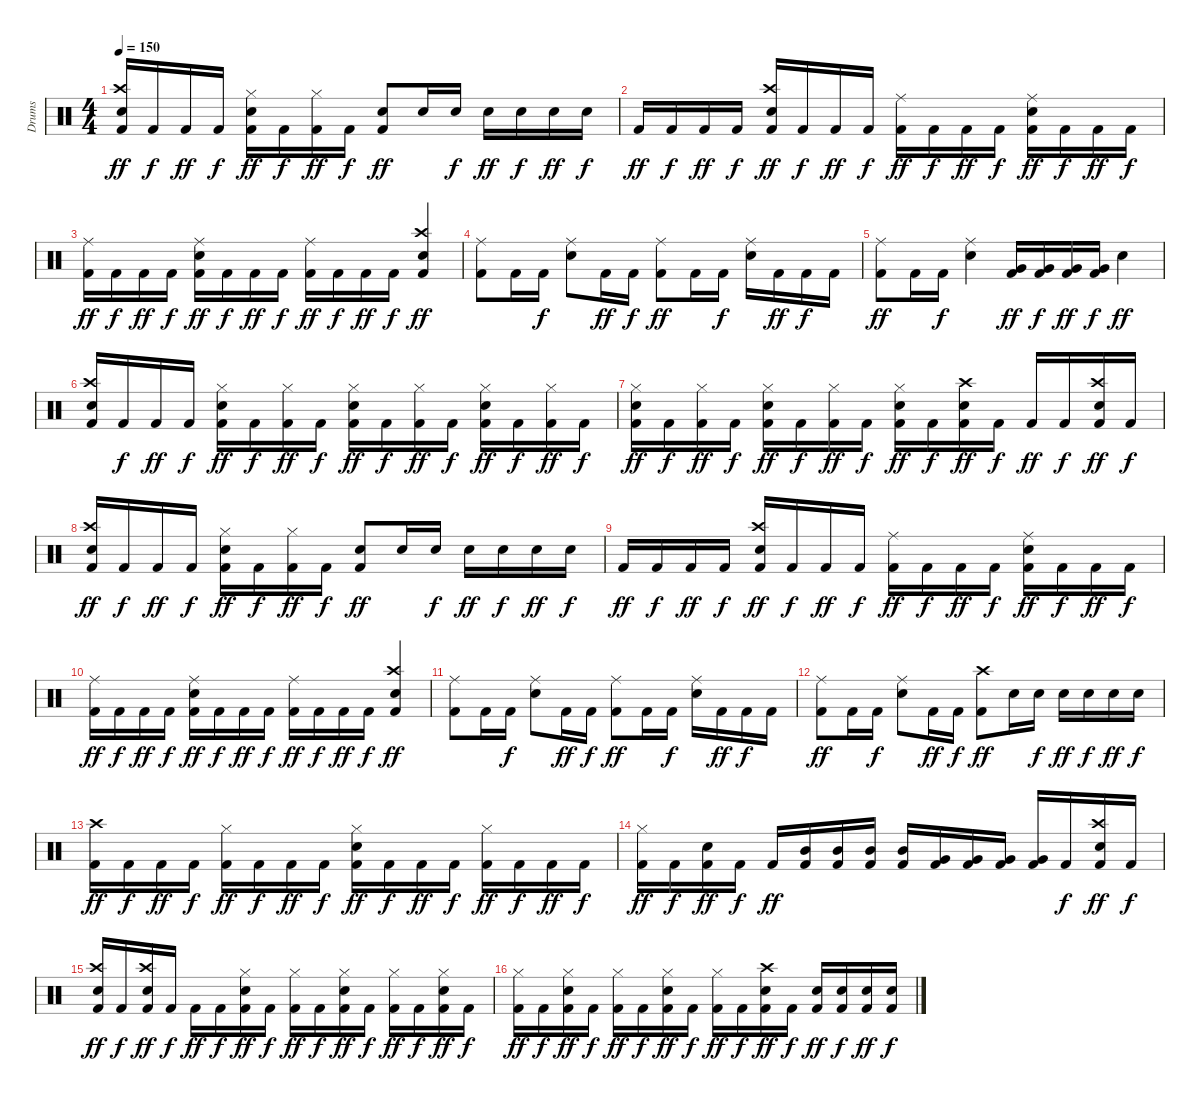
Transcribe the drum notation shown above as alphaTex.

\track ("Drums" "Drums") {instrument percussion}
\staff {score}
\articulation defaults
\ts (4 4)
\tempo 150
\clef neutral
\ks c
("Kick (hit) 2" "Crash high (hit)" "Snare (hit) 2").16{dy ff} "Kick (hit) 2".16{dy f} "Kick (hit) 2".16{dy ff} "Kick (hit) 2".16{dy f} ("Kick (hit) 2" "Hi-Hat (closed)" "Snare (hit) 2").16{dy ff} "Kick (hit) 2".16{dy f} ("Hi-Hat (closed)" "Kick (hit) 2").16{dy ff} "Kick (hit) 2".16{dy f} ("Kick (hit) 2" "Snare (hit) 2").8{dy ff} "Snare (hit) 2".16 "Snare (hit) 2".16{dy f} "Snare (hit) 2".16{dy ff} "Snare (hit) 2".16{dy f} "Snare (hit) 2".16{dy ff} "Snare (hit) 2".16{dy f} |
"Kick (hit) 2".16{dy ff} "Kick (hit) 2".16{dy f} "Kick (hit) 2".16{dy ff} "Kick (hit) 2".16{dy f} ("Kick (hit) 2" "Crash high (hit)" "Snare (hit) 2").16{dy ff} "Kick (hit) 2".16{dy f} "Kick (hit) 2".16{dy ff} "Kick (hit) 2".16{dy f} ("Ride (middle)" "Kick (hit) 2").16{dy ff} "Kick (hit) 2".16{dy f} "Kick (hit) 2".16{dy ff} "Kick (hit) 2".16{dy f} ("Kick (hit) 2" "Snare (hit) 2" "Ride (middle)").16{dy ff} "Kick (hit) 2".16{dy f} "Kick (hit) 2".16{dy ff} "Kick (hit) 2".16{dy f} |
("Ride (middle)" "Kick (hit) 2").16{dy ff} "Kick (hit) 2".16{dy f} "Kick (hit) 2".16{dy ff} "Kick (hit) 2".16{dy f} ("Kick (hit) 2" "Snare (hit) 2" "Ride (middle)").16{dy ff} "Kick (hit) 2".16{dy f} "Kick (hit) 2".16{dy ff} "Kick (hit) 2".16{dy f} ("Ride (middle)" "Kick (hit) 2").16{dy ff} "Kick (hit) 2".16{dy f} "Kick (hit) 2".16{dy ff} "Kick (hit) 2".16{dy f} ("Kick (hit) 2" "Crash high (hit)" "Snare (hit) 2").4{dy ff} |
("Ride (middle)" "Kick (hit) 2").8 "Kick (hit) 2".16 "Kick (hit) 2".16{dy f} ("Snare (hit) 2" "Ride (middle)").8 "Kick (hit) 2".16{dy ff} "Kick (hit) 2".16{dy f} ("Ride (middle)" "Kick (hit) 2").8{dy ff} "Kick (hit) 2".16 "Kick (hit) 2".16{dy f} ("Snare (hit) 2" "Ride (middle)").16 "Kick (hit) 2".16{dy ff} "Kick (hit) 2".16{dy f} "Kick (hit) 2".16 |
("Ride (middle)" "Kick (hit) 2").8{dy ff} "Kick (hit) 2".16 "Kick (hit) 2".16{dy f} ("Snare (hit) 2" "Ride (middle)").4 ("Very Low Tom (hit)" "Kick (hit) 2").16{dy ff} ("Kick (hit) 2" "Very Low Tom (hit)").16{dy f} ("Very Low Tom (hit)" "Kick (hit) 2").16{dy ff} ("Kick (hit) 2" "Very Low Tom (hit)").16{dy f} "Snare (hit) 2".4{dy ff} |
("Kick (hit) 2" "Crash high (hit)" "Snare (hit) 2").16 "Kick (hit) 2".16{dy f} "Kick (hit) 2".16{dy ff} "Kick (hit) 2".16{dy f} ("Kick (hit) 2" "Hi-Hat (closed)" "Snare (hit) 2").16{dy ff} "Kick (hit) 2".16{dy f} ("Hi-Hat (closed)" "Kick (hit) 2").16{dy ff} "Kick (hit) 2".16{dy f} ("Kick (hit) 2" "Hi-Hat (closed)" "Snare (hit) 2").16{dy ff} "Kick (hit) 2".16{dy f} ("Hi-Hat (closed)" "Kick (hit) 2").16{dy ff} "Kick (hit) 2".16{dy f} ("Kick (hit) 2" "Hi-Hat (closed)" "Snare (hit) 2").16{dy ff} "Kick (hit) 2".16{dy f} ("Hi-Hat (closed)" "Kick (hit) 2").16{dy ff} "Kick (hit) 2".16{dy f} |
("Kick (hit) 2" "Hi-Hat (closed)" "Snare (hit) 2").16{dy ff} "Kick (hit) 2".16{dy f} ("Hi-Hat (closed)" "Kick (hit) 2").16{dy ff} "Kick (hit) 2".16{dy f} ("Kick (hit) 2" "Hi-Hat (closed)" "Snare (hit) 2").16{dy ff} "Kick (hit) 2".16{dy f} ("Hi-Hat (closed)" "Kick (hit) 2").16{dy ff} "Kick (hit) 2".16{dy f} ("Kick (hit) 2" "Hi-Hat (closed)" "Snare (hit) 2").16{dy ff} "Kick (hit) 2".16{dy f} ("Kick (hit) 2" "Snare (hit) 2" "Crash high (hit)").16{dy ff} "Kick (hit) 2".16{dy f} "Kick (hit) 2".16{dy ff} "Kick (hit) 2".16{dy f} ("Kick (hit) 2" "Snare (hit) 2" "Crash high (hit)").16{dy ff} "Kick (hit) 2".16{dy f} |
("Kick (hit) 2" "Crash high (hit)" "Snare (hit) 2").16{dy ff} "Kick (hit) 2".16{dy f} "Kick (hit) 2".16{dy ff} "Kick (hit) 2".16{dy f} ("Kick (hit) 2" "Hi-Hat (closed)" "Snare (hit) 2").16{dy ff} "Kick (hit) 2".16{dy f} ("Hi-Hat (closed)" "Kick (hit) 2").16{dy ff} "Kick (hit) 2".16{dy f} ("Kick (hit) 2" "Snare (hit) 2").8{dy ff} "Snare (hit) 2".16 "Snare (hit) 2".16{dy f} "Snare (hit) 2".16{dy ff} "Snare (hit) 2".16{dy f} "Snare (hit) 2".16{dy ff} "Snare (hit) 2".16{dy f} |
"Kick (hit) 2".16{dy ff} "Kick (hit) 2".16{dy f} "Kick (hit) 2".16{dy ff} "Kick (hit) 2".16{dy f} ("Kick (hit) 2" "Crash high (hit)" "Snare (hit) 2").16{dy ff} "Kick (hit) 2".16{dy f} "Kick (hit) 2".16{dy ff} "Kick (hit) 2".16{dy f} ("Ride (middle)" "Kick (hit) 2").16{dy ff} "Kick (hit) 2".16{dy f} "Kick (hit) 2".16{dy ff} "Kick (hit) 2".16{dy f} ("Kick (hit) 2" "Snare (hit) 2" "Ride (middle)").16{dy ff} "Kick (hit) 2".16{dy f} "Kick (hit) 2".16{dy ff} "Kick (hit) 2".16{dy f} |
("Ride (middle)" "Kick (hit) 2").16{dy ff} "Kick (hit) 2".16{dy f} "Kick (hit) 2".16{dy ff} "Kick (hit) 2".16{dy f} ("Kick (hit) 2" "Snare (hit) 2" "Ride (middle)").16{dy ff} "Kick (hit) 2".16{dy f} "Kick (hit) 2".16{dy ff} "Kick (hit) 2".16{dy f} ("Ride (middle)" "Kick (hit) 2").16{dy ff} "Kick (hit) 2".16{dy f} "Kick (hit) 2".16{dy ff} "Kick (hit) 2".16{dy f} ("Kick (hit) 2" "Crash high (hit)" "Snare (hit) 2").4{dy ff} |
("Ride (middle)" "Kick (hit) 2").8 "Kick (hit) 2".16 "Kick (hit) 2".16{dy f} ("Snare (hit) 2" "Ride (middle)").8 "Kick (hit) 2".16{dy ff} "Kick (hit) 2".16{dy f} ("Ride (middle)" "Kick (hit) 2").8{dy ff} "Kick (hit) 2".16 "Kick (hit) 2".16{dy f} ("Snare (hit) 2" "Ride (middle)").16 "Kick (hit) 2".16{dy ff} "Kick (hit) 2".16{dy f} "Kick (hit) 2".16 |
("Ride (middle)" "Kick (hit) 2").8{dy ff} "Kick (hit) 2".16 "Kick (hit) 2".16{dy f} ("Snare (hit) 2" "Ride (middle)").8 "Kick (hit) 2".16{dy ff} "Kick (hit) 2".16{dy f} ("Crash high (hit)" "Kick (hit) 2").8{dy ff} "Snare (hit) 2".16 "Snare (hit) 2".16{dy f} "Snare (hit) 2".16{dy ff} "Snare (hit) 2".16{dy f} "Snare (hit) 2".16{dy ff} "Snare (hit) 2".16{dy f} |
("Crash high (hit)" "Kick (hit) 2").16{dy ff} "Kick (hit) 2".16{dy f} "Kick (hit) 2".16{dy ff} "Kick (hit) 2".16{dy f} ("Hi-Hat (closed)" "Kick (hit) 2").16{dy ff} "Kick (hit) 2".16{dy f} "Kick (hit) 2".16{dy ff} "Kick (hit) 2".16{dy f} ("Kick (hit) 2" "Snare (hit) 2" "Hi-Hat (closed)").16{dy ff} "Kick (hit) 2".16{dy f} "Kick (hit) 2".16{dy ff} "Kick (hit) 2".16{dy f} ("Hi-Hat (closed)" "Kick (hit) 2").16{dy ff} "Kick (hit) 2".16{dy f} "Kick (hit) 2".16{dy ff} "Kick (hit) 2".16{dy f} |
("Hi-Hat (closed)" "Kick (hit) 2").16{dy ff} "Kick (hit) 2".16{dy f} ("Snare (hit) 2" "Kick (hit) 2").16{dy ff} "Kick (hit) 2".16{dy f} "Kick (hit) 2".16{dy ff} ("Mid Tom (hit)" "Kick (hit) 2").16 ("Mid Tom (hit)" "Kick (hit) 2").16 ("Mid Tom (hit)" "Kick (hit) 2").16 ("Mid Tom (hit)" "Kick (hit) 2").16 ("Very Low Tom (hit)" "Kick (hit) 2").16 ("Very Low Tom (hit)" "Kick (hit) 2").16 ("Very Low Tom (hit)" "Kick (hit) 2").16 ("Very Low Tom (hit)" "Kick (hit) 2").16 "Kick (hit) 2".16{dy f} ("Kick (hit) 2" "Crash high (hit)" "Snare (hit) 2").16{dy ff} "Kick (hit) 2".16{dy f} |
("Kick (hit) 2" "Snare (hit) 2" "Crash high (hit)").16{dy ff} "Kick (hit) 2".16{dy f} ("Kick (hit) 2" "Snare (hit) 2" "Crash high (hit)").16{dy ff} "Kick (hit) 2".16{dy f} "Kick (hit) 2".16{dy ff} "Kick (hit) 2".16{dy f} ("Kick (hit) 2" "Hi-Hat (closed)" "Snare (hit) 2").16{dy ff} "Kick (hit) 2".16{dy f} ("Hi-Hat (closed)" "Kick (hit) 2").16{dy ff} "Kick (hit) 2".16{dy f} ("Kick (hit) 2" "Hi-Hat (closed)" "Snare (hit) 2").16{dy ff} "Kick (hit) 2".16{dy f} ("Hi-Hat (closed)" "Kick (hit) 2").16{dy ff} "Kick (hit) 2".16{dy f} ("Kick (hit) 2" "Hi-Hat (closed)" "Snare (hit) 2").16{dy ff} "Kick (hit) 2".16{dy f} |
("Hi-Hat (closed)" "Kick (hit) 2").16{dy ff} "Kick (hit) 2".16{dy f} ("Kick (hit) 2" "Hi-Hat (closed)" "Snare (hit) 2").16{dy ff} "Kick (hit) 2".16{dy f} ("Hi-Hat (closed)" "Kick (hit) 2").16{dy ff} "Kick (hit) 2".16{dy f} ("Kick (hit) 2" "Hi-Hat (closed)" "Snare (hit) 2").16{dy ff} "Kick (hit) 2".16{dy f} ("Hi-Hat (closed)" "Kick (hit) 2").16{dy ff} "Kick (hit) 2".16{dy f} ("Snare (hit) 2" "Crash high (hit)" "Kick (hit) 2").16{dy ff} "Kick (hit) 2".16{dy f} ("Snare (hit) 2" "Kick (hit) 2").16{dy ff} ("Snare (hit) 2" "Kick (hit) 2").16{dy f} ("Snare (hit) 2" "Kick (hit) 2").16{dy ff} ("Snare (hit) 2" "Kick (hit) 2").16{dy f}
